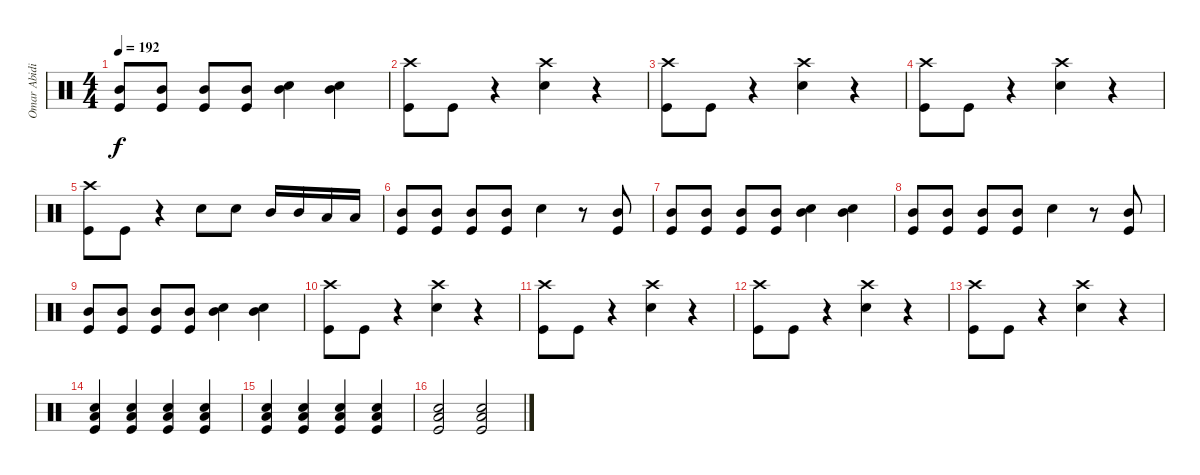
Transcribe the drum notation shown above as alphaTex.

\track ("Omar Abidi" "Omar Abidi") {instrument percussion}
\staff {score}
\articulation defaults
\ts (4 4)
\tempo 192
\clef neutral
\ks c
("Mid Tom (hit)" "Kick (hit)").8{dy f} ("Mid Tom (hit)" "Kick (hit)").8 ("Mid Tom (hit)" "Kick (hit)").8 ("Mid Tom (hit)" "Kick (hit)").8 ("Snare (hit) 2" "Mid Tom (hit)").4 ("Snare (hit) 2" "Mid Tom (hit)").4 |
("Crash high (hit)" "Kick (hit)").8 "Kick (hit)".8 r.4 ("Crash high (hit)" "Snare (hit) 2").4 r.4 |
("Crash high (hit)" "Kick (hit)").8 "Kick (hit)".8 r.4 ("Crash high (hit)" "Snare (hit) 2").4 r.4 |
("Crash high (hit)" "Kick (hit)").8 "Kick (hit)".8 r.4 ("Crash high (hit)" "Snare (hit) 2").4 r.4 |
("Crash high (hit)" "Kick (hit)").8 "Kick (hit)".8 r.4 "Snare (hit) 2".8 "Snare (hit) 2".8 "Mid Tom (hit)".16 "Mid Tom (hit)".16 "Low Floor Tom (hit)".16 "Low Floor Tom (hit)".16 |
("Mid Tom (hit)" "Kick (hit)").8 ("Mid Tom (hit)" "Kick (hit)").8 ("Mid Tom (hit)" "Kick (hit)").8 ("Mid Tom (hit)" "Kick (hit)").8 "Snare (hit) 2".4 r.8 ("Mid Tom (hit)" "Kick (hit)").8 |
("Mid Tom (hit)" "Kick (hit)").8 ("Mid Tom (hit)" "Kick (hit)").8 ("Mid Tom (hit)" "Kick (hit)").8 ("Mid Tom (hit)" "Kick (hit)").8 ("Snare (hit) 2" "Mid Tom (hit)").4 ("Snare (hit) 2" "Mid Tom (hit)").4 |
("Mid Tom (hit)" "Kick (hit)").8 ("Mid Tom (hit)" "Kick (hit)").8 ("Mid Tom (hit)" "Kick (hit)").8 ("Mid Tom (hit)" "Kick (hit)").8 "Snare (hit) 2".4 r.8 ("Mid Tom (hit)" "Kick (hit)").8 |
("Mid Tom (hit)" "Kick (hit)").8 ("Mid Tom (hit)" "Kick (hit)").8 ("Mid Tom (hit)" "Kick (hit)").8 ("Mid Tom (hit)" "Kick (hit)").8 ("Snare (hit) 2" "Mid Tom (hit)").4 ("Snare (hit) 2" "Mid Tom (hit)").4 |
("Crash high (hit)" "Kick (hit)").8 "Kick (hit)".8 r.4 ("Crash high (hit)" "Snare (hit) 2").4 r.4 |
("Crash high (hit)" "Kick (hit)").8 "Kick (hit)".8 r.4 ("Crash high (hit)" "Snare (hit) 2").4 r.4 |
("Crash high (hit)" "Kick (hit)").8 "Kick (hit)".8 r.4 ("Crash high (hit)" "Snare (hit) 2").4 r.4 |
("Crash high (hit)" "Kick (hit)").8 "Kick (hit)".8 r.4 ("Crash high (hit)" "Snare (hit) 2").4 r.4 |
("Snare (hit) 2" "Low Floor Tom (hit)" "Kick (hit)").4 ("Snare (hit) 2" "Low Floor Tom (hit)" "Kick (hit)").4 ("Snare (hit) 2" "Low Floor Tom (hit)" "Kick (hit)").4 ("Snare (hit) 2" "Low Floor Tom (hit)" "Kick (hit)").4 |
("Snare (hit) 2" "Low Floor Tom (hit)" "Kick (hit)").4 ("Snare (hit) 2" "Low Floor Tom (hit)" "Kick (hit)").4 ("Snare (hit) 2" "Low Floor Tom (hit)" "Kick (hit)").4 ("Snare (hit) 2" "Low Floor Tom (hit)" "Kick (hit)").4 |
("Snare (hit) 2" "Low Floor Tom (hit)" "Kick (hit)").2 ("Snare (hit) 2" "Low Floor Tom (hit)" "Kick (hit)").2
